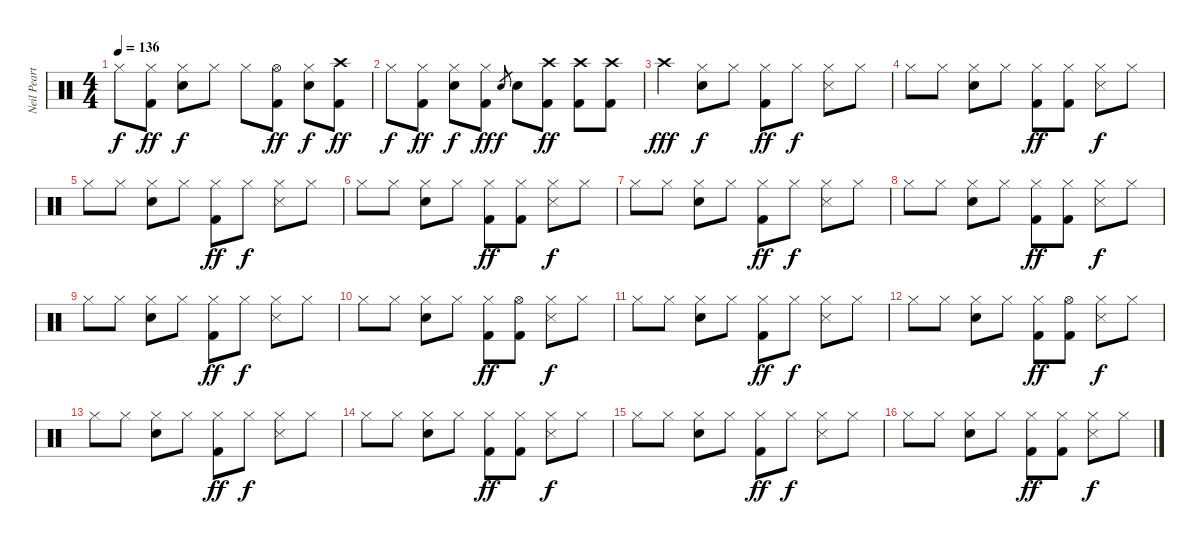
\track ("Neil Peart" "Neil Peart") {instrument percussion}
\staff {score}
\articulation defaults
\ts (4 4)
\tempo 136
\clef neutral
\ks c "Hi-Hat (closed)".8{dy f}
("Hi-Hat (closed)" "Kick (hit) 2").8{dy ff} ("Hi-Hat (closed)" "Snare (hit) 2").8{dy f} "Hi-Hat (closed)".8 "Hi-Hat (closed)".8 ("Hi-Hat (open)" "Kick (hit) 2").8{dy ff} ("Hi-Hat (closed)" "Snare (hit) 2").8{dy f} ("Crash high (hit)" "Kick (hit) 2").8{dy ff} |
"Hi-Hat (closed)".8{dy f} ("Hi-Hat (closed)" "Kick (hit) 2").8{dy ff} ("Hi-Hat (closed)" "Snare (hit) 2").8{dy f} ("Hi-Hat (closed)" "Kick (hit) 2").8{dy ff} "Snare (hit) 2".8{gr dy f} "Snare (hit) 2".8 ("Crash high (hit)" "Kick (hit) 2").8{dy ff} ("Crash high (hit)" "Kick (hit) 2").8 ("Crash high (hit)" "Kick (hit) 2").8 |
"Crash high (hit)".4{dy fff} ("Hi-Hat (closed)" "Snare (hit) 2").8{dy f} "Hi-Hat (closed)".8 ("Hi-Hat (closed)" "Kick (hit) 2").8{dy ff} "Hi-Hat (closed)".8{dy f} ("Hi-Hat (closed)" "Snare (side stick) 3").8 "Hi-Hat (closed)".8 |
"Hi-Hat (closed)".8 "Hi-Hat (closed)".8 ("Hi-Hat (closed)" "Snare (hit) 2").8 "Hi-Hat (closed)".8 ("Hi-Hat (closed)" "Kick (hit) 2").8{dy ff} ("Hi-Hat (closed)" "Kick (hit) 2").8 ("Hi-Hat (closed)" "Snare (side stick) 3").8{dy f} "Hi-Hat (closed)".8 |
"Hi-Hat (closed)".8 "Hi-Hat (closed)".8 ("Hi-Hat (closed)" "Snare (hit) 2").8 "Hi-Hat (closed)".8 ("Hi-Hat (closed)" "Kick (hit) 2").8{dy ff} "Hi-Hat (closed)".8{dy f} ("Hi-Hat (closed)" "Snare (side stick) 3").8 "Hi-Hat (closed)".8 |
"Hi-Hat (closed)".8 "Hi-Hat (closed)".8 ("Hi-Hat (closed)" "Snare (hit) 2").8 "Hi-Hat (closed)".8 ("Hi-Hat (closed)" "Kick (hit) 2").8{dy ff} ("Hi-Hat (closed)" "Kick (hit) 2").8 ("Hi-Hat (closed)" "Snare (side stick) 3").8{dy f} "Hi-Hat (closed)".8 |
"Hi-Hat (closed)".8 "Hi-Hat (closed)".8 ("Hi-Hat (closed)" "Snare (hit) 2").8 "Hi-Hat (closed)".8 ("Hi-Hat (closed)" "Kick (hit) 2").8{dy ff} "Hi-Hat (closed)".8{dy f} ("Hi-Hat (closed)" "Snare (side stick) 3").8 "Hi-Hat (closed)".8 |
"Hi-Hat (closed)".8 "Hi-Hat (closed)".8 ("Hi-Hat (closed)" "Snare (hit) 2").8 "Hi-Hat (closed)".8 ("Hi-Hat (closed)" "Kick (hit) 2").8{dy ff} ("Hi-Hat (closed)" "Kick (hit) 2").8 ("Hi-Hat (closed)" "Snare (side stick) 3").8{dy f} "Hi-Hat (closed)".8 |
"Hi-Hat (closed)".8 "Hi-Hat (closed)".8 ("Hi-Hat (closed)" "Snare (hit) 2").8 "Hi-Hat (closed)".8 ("Hi-Hat (closed)" "Kick (hit) 2").8{dy ff} "Hi-Hat (closed)".8{dy f} ("Hi-Hat (closed)" "Snare (side stick) 3").8 "Hi-Hat (closed)".8 |
"Hi-Hat (closed)".8 "Hi-Hat (closed)".8 ("Hi-Hat (closed)" "Snare (hit) 2").8 "Hi-Hat (closed)".8 ("Hi-Hat (closed)" "Kick (hit) 2").8{dy ff} ("Hi-Hat (open)" "Kick (hit) 2").8 ("Hi-Hat (closed)" "Snare (side stick) 3").8{dy f} "Hi-Hat (closed)".8 |
"Hi-Hat (closed)".8 "Hi-Hat (closed)".8 ("Hi-Hat (closed)" "Snare (hit) 2").8 "Hi-Hat (closed)".8 ("Hi-Hat (closed)" "Kick (hit) 2").8{dy ff} "Hi-Hat (closed)".8{dy f} ("Hi-Hat (closed)" "Snare (side stick) 3").8 "Hi-Hat (closed)".8 |
"Hi-Hat (closed)".8 "Hi-Hat (closed)".8 ("Hi-Hat (closed)" "Snare (hit) 2").8 "Hi-Hat (closed)".8 ("Hi-Hat (closed)" "Kick (hit) 2").8{dy ff} ("Hi-Hat (open)" "Kick (hit) 2").8 ("Hi-Hat (closed)" "Snare (side stick) 3").8{dy f} "Hi-Hat (closed)".8 |
"Hi-Hat (closed)".8 "Hi-Hat (closed)".8 ("Hi-Hat (closed)" "Snare (hit) 2").8 "Hi-Hat (closed)".8 ("Hi-Hat (closed)" "Kick (hit) 2").8{dy ff} "Hi-Hat (closed)".8{dy f} ("Hi-Hat (closed)" "Snare (side stick) 3").8 "Hi-Hat (closed)".8 |
"Hi-Hat (closed)".8 "Hi-Hat (closed)".8 ("Hi-Hat (closed)" "Snare (hit) 2").8 "Hi-Hat (closed)".8 ("Hi-Hat (closed)" "Kick (hit) 2").8{dy ff} ("Hi-Hat (closed)" "Kick (hit) 2").8 ("Hi-Hat (closed)" "Snare (side stick) 3").8{dy f} "Hi-Hat (closed)".8 |
"Hi-Hat (closed)".8 "Hi-Hat (closed)".8 ("Hi-Hat (closed)" "Snare (hit) 2").8 "Hi-Hat (closed)".8 ("Hi-Hat (closed)" "Kick (hit) 2").8{dy ff} "Hi-Hat (closed)".8{dy f} ("Hi-Hat (closed)" "Snare (side stick) 3").8 "Hi-Hat (closed)".8 |
"Hi-Hat (closed)".8 "Hi-Hat (closed)".8 ("Hi-Hat (closed)" "Snare (hit) 2").8 "Hi-Hat (closed)".8 ("Hi-Hat (closed)" "Kick (hit) 2").8{dy ff} ("Hi-Hat (closed)" "Kick (hit) 2").8 ("Hi-Hat (closed)" "Snare (side stick) 3").8{dy f} "Hi-Hat (closed)".8
